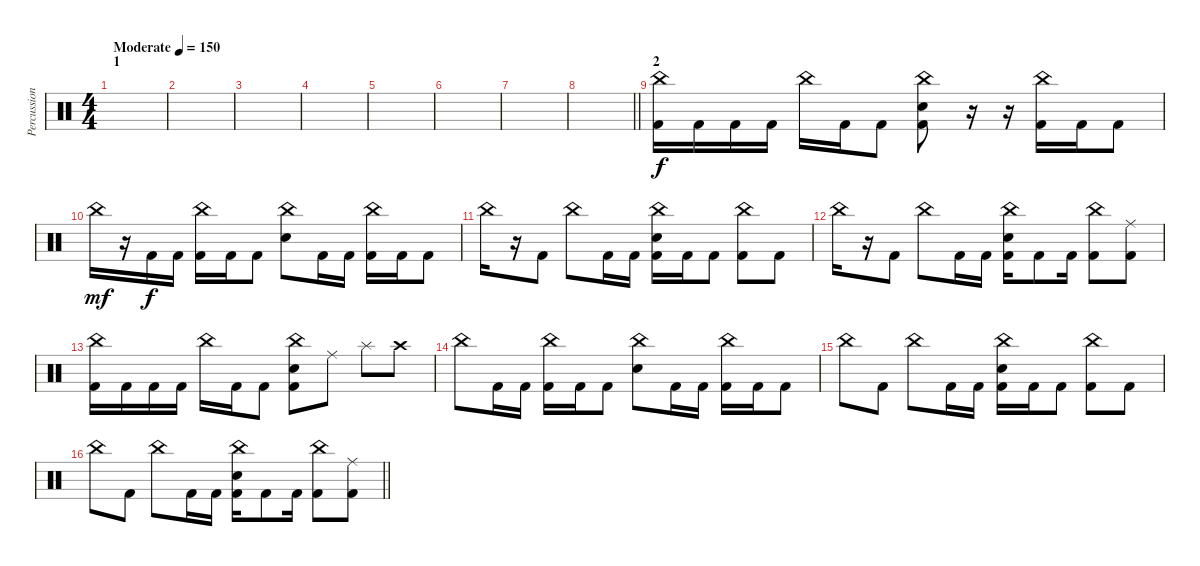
\track ("Percussioni" "Percussion") {instrument percussion}
\staff {score}
\articulation defaults
\ts (4 4)
\section ("" "1")
\tempo (150 "Moderate")
\clef neutral
\ks c
|
|
|
|
|
|
|
\barLineRight lightlight
|
\section ("" "2")
("China (hit)" "Kick (hit) 2").16 "Kick (hit) 2".16 "Kick (hit) 2".16 "Kick (hit) 2".16 "China (hit)".16 "Kick (hit) 2".16 "Kick (hit) 2".8 ("China (hit)" "Electric Snare (hit)" "Kick (hit) 2").8 r.16 r.16 ("China (hit)" "Kick (hit) 2").16 "Kick (hit) 2".16 "Kick (hit) 2".8 |
"China (hit)".16{dy mf} r.16 "Kick (hit) 2".16{dy f} "Kick (hit) 2".16 ("China (hit)" "Kick (hit) 2").16 "Kick (hit) 2".16 "Kick (hit) 2".8 ("China (hit)" "Electric Snare (hit)").8 "Kick (hit) 2".16 "Kick (hit) 2".16 ("China (hit)" "Kick (hit) 2").16 "Kick (hit) 2".16 "Kick (hit) 2".8 |
"China (hit)".16 r.16 "Kick (hit) 2".8 "China (hit)".8 "Kick (hit) 2".16 "Kick (hit) 2".16 ("China (hit)" "Electric Snare (hit)" "Kick (hit) 2").16 "Kick (hit) 2".16 "Kick (hit) 2".8 ("China (hit)" "Kick (hit) 2").8 "Kick (hit) 2".8 |
"China (hit)".16 r.16 "Kick (hit) 2".8 "China (hit)".8 "Kick (hit) 2".16 "Kick (hit) 2".16 ("China (hit)" "Electric Snare (hit)" "Kick (hit) 2").16 "Kick (hit) 2".8 "Kick (hit) 2".16 ("China (hit)" "Kick (hit) 2").8 ("Ride (middle)" "Kick (hit) 2").8 |
("China (hit)" "Kick (hit) 2").16 "Kick (hit) 2".16 "Kick (hit) 2".16 "Kick (hit) 2".16 "China (hit)".16 "Kick (hit) 2".16 "Kick (hit) 2".8 ("China (hit)" "Electric Snare (hit)" "Kick (hit) 2").8 "Ride (middle)".8 "Splash (hit)".8 "Crash high (hit)".8 |
"China (hit)".8 "Kick (hit) 2".16 "Kick (hit) 2".16 ("China (hit)" "Kick (hit) 2").16 "Kick (hit) 2".16 "Kick (hit) 2".8 ("China (hit)" "Electric Snare (hit)").8 "Kick (hit) 2".16 "Kick (hit) 2".16 ("China (hit)" "Kick (hit) 2").16 "Kick (hit) 2".16 "Kick (hit) 2".8 |
"China (hit)".8 "Kick (hit) 2".8 "China (hit)".8 "Kick (hit) 2".16 "Kick (hit) 2".16 ("China (hit)" "Electric Snare (hit)" "Kick (hit) 2").16 "Kick (hit) 2".16 "Kick (hit) 2".8 ("China (hit)" "Kick (hit) 2").8 "Kick (hit) 2".8 |
\barLineRight lightlight "China (hit)".8 "Kick (hit) 2".8 "China (hit)".8 "Kick (hit) 2".16 "Kick (hit) 2".16
("China (hit)" "Electric Snare (hit)" "Kick (hit) 2").16 "Kick (hit) 2".8 "Kick (hit) 2".16 ("China (hit)" "Kick (hit) 2").8 ("Ride (middle)" "Kick (hit) 2").8
